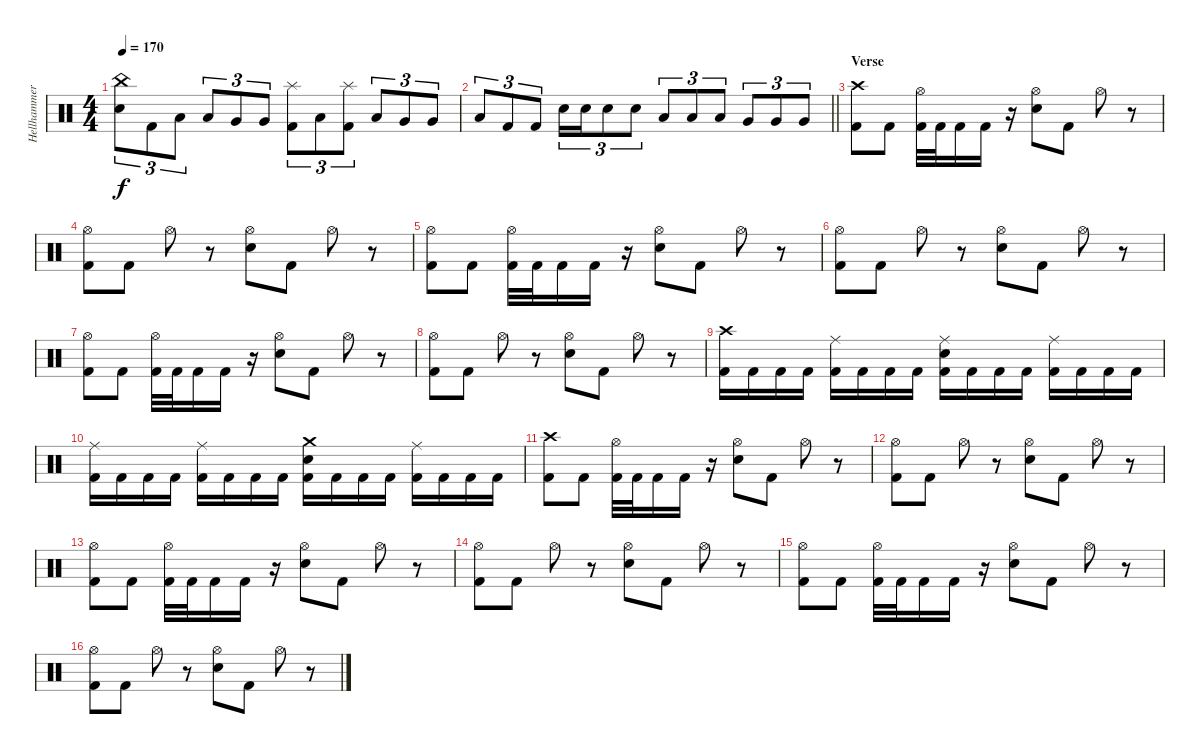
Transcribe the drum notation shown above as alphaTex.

\track ("Hellhammer" "Hellhammer") {instrument percussion}
\staff {score}
\articulation defaults
\ts (4 4)
\tempo 170
\clef neutral
\ks c
("China (hit)" "Snare (hit) 2").8{tu (3 2) dy f} "Kick (hit) 2".8{tu (3 2)} "Low Tom (hit)".8{tu (3 2)} "Low Tom (hit)".8{tu (3 2)} "Very Low Tom (hit)".8{tu (3 2)} "Very Low Tom (hit)".8{tu (3 2)} ("Splash (hit)" "Kick (hit) 2").8{tu (3 2)} "Low Tom (hit)".8{tu (3 2)} ("Splash (hit)" "Kick (hit) 2").8{tu (3 2)} "Low Tom (hit)".8{tu (3 2)} "Very Low Tom (hit)".8{tu (3 2)} "Very Low Tom (hit)".8{tu (3 2)} |
\barLineRight lightlight "Low Floor Tom (hit)".8{tu (3 2)} "Kick (hit) 2".8{tu (3 2)} "Kick (hit) 2".8{tu (3 2)} "Snare (hit) 2".16{tu (3 2)} "Snare (hit) 2".16{tu (3 2)} "Snare (hit) 2".8{tu (3 2)} "Snare (hit) 2".8{tu (3 2)} "Low Tom (hit)".8{tu (3 2)} "Low Tom (hit)".8{tu (3 2)} "Low Tom (hit)".8{tu (3 2)} "Very Low Tom (hit)".8{tu (3 2)} "Very Low Tom (hit)".8{tu (3 2)} "Very Low Tom (hit)".8{tu (3 2)}
|
\section ("" "Verse")
("Crash high (hit)" "Kick (hit) 2").8 "Kick (hit) 2".8 ("Hi-Hat (open)" "Kick (hit) 2").32 "Kick (hit) 2".32 "Kick (hit) 2".16 "Kick (hit) 2".16 r.16 ("Hi-Hat (open)" "Snare (hit) 2").8 "Kick (hit) 2".8 "Hi-Hat (open)".8 r.8 |
("Hi-Hat (open)" "Kick (hit) 2").8 "Kick (hit) 2".8 "Hi-Hat (open)".8 r.8 ("Hi-Hat (open)" "Snare (hit) 2").8 "Kick (hit) 2".8 "Hi-Hat (open)".8 r.8 |
("Hi-Hat (open)" "Kick (hit) 2").8 "Kick (hit) 2".8 ("Hi-Hat (open)" "Kick (hit) 2").32 "Kick (hit) 2".32 "Kick (hit) 2".16 "Kick (hit) 2".16 r.16 ("Hi-Hat (open)" "Snare (hit) 2").8 "Kick (hit) 2".8 "Hi-Hat (open)".8 r.8 |
("Hi-Hat (open)" "Kick (hit) 2").8 "Kick (hit) 2".8 "Hi-Hat (open)".8 r.8 ("Hi-Hat (open)" "Snare (hit) 2").8 "Kick (hit) 2".8 "Hi-Hat (open)".8 r.8 |
("Hi-Hat (open)" "Kick (hit) 2").8 "Kick (hit) 2".8 ("Hi-Hat (open)" "Kick (hit) 2").32 "Kick (hit) 2".32 "Kick (hit) 2".16 "Kick (hit) 2".16 r.16 ("Hi-Hat (open)" "Snare (hit) 2").8 "Kick (hit) 2".8 "Hi-Hat (open)".8 r.8 |
("Hi-Hat (open)" "Kick (hit) 2").8 "Kick (hit) 2".8 "Hi-Hat (open)".8 r.8 ("Hi-Hat (open)" "Snare (hit) 2").8 "Kick (hit) 2".8 "Hi-Hat (open)".8 r.8 |
("Crash high (hit)" "Kick (hit) 2").16 "Kick (hit) 2".16 "Kick (hit) 2".16 "Kick (hit) 2".16 ("Ride (middle)" "Kick (hit) 2").16 "Kick (hit) 2".16 "Kick (hit) 2".16 "Kick (hit) 2".16 ("Ride (middle)" "Snare (hit) 2" "Kick (hit) 2").16 "Kick (hit) 2".16 "Kick (hit) 2".16 "Kick (hit) 2".16 ("Ride (middle)" "Kick (hit) 2").16 "Kick (hit) 2".16 "Kick (hit) 2".16 "Kick (hit) 2".16 |
("Ride (middle)" "Kick (hit) 2").16 "Kick (hit) 2".16 "Kick (hit) 2".16 "Kick (hit) 2".16 ("Ride (middle)" "Kick (hit) 2").16 "Kick (hit) 2".16 "Kick (hit) 2".16 "Kick (hit) 2".16 ("Crash medium (hit)" "Snare (hit) 2" "Kick (hit) 2").16 "Kick (hit) 2".16 "Kick (hit) 2".16 "Kick (hit) 2".16 ("Ride (middle)" "Kick (hit) 2").16 "Kick (hit) 2".16 "Kick (hit) 2".16 "Kick (hit) 2".16 |
("Crash high (hit)" "Kick (hit) 2").8 "Kick (hit) 2".8 ("Hi-Hat (open)" "Kick (hit) 2").32 "Kick (hit) 2".32 "Kick (hit) 2".16 "Kick (hit) 2".16 r.16 ("Hi-Hat (open)" "Snare (hit) 2").8 "Kick (hit) 2".8 "Hi-Hat (open)".8 r.8 |
("Hi-Hat (open)" "Kick (hit) 2").8 "Kick (hit) 2".8 "Hi-Hat (open)".8 r.8 ("Hi-Hat (open)" "Snare (hit) 2").8 "Kick (hit) 2".8 "Hi-Hat (open)".8 r.8 |
("Hi-Hat (open)" "Kick (hit) 2").8 "Kick (hit) 2".8 ("Hi-Hat (open)" "Kick (hit) 2").32 "Kick (hit) 2".32 "Kick (hit) 2".16 "Kick (hit) 2".16 r.16 ("Hi-Hat (open)" "Snare (hit) 2").8 "Kick (hit) 2".8 "Hi-Hat (open)".8 r.8 |
("Hi-Hat (open)" "Kick (hit) 2").8 "Kick (hit) 2".8 "Hi-Hat (open)".8 r.8 ("Hi-Hat (open)" "Snare (hit) 2").8 "Kick (hit) 2".8 "Hi-Hat (open)".8 r.8 |
("Hi-Hat (open)" "Kick (hit) 2").8 "Kick (hit) 2".8 ("Hi-Hat (open)" "Kick (hit) 2").32 "Kick (hit) 2".32 "Kick (hit) 2".16 "Kick (hit) 2".16 r.16 ("Hi-Hat (open)" "Snare (hit) 2").8 "Kick (hit) 2".8 "Hi-Hat (open)".8 r.8 |
("Hi-Hat (open)" "Kick (hit) 2").8 "Kick (hit) 2".8 "Hi-Hat (open)".8 r.8 ("Hi-Hat (open)" "Snare (hit) 2").8 "Kick (hit) 2".8 "Hi-Hat (open)".8 r.8
